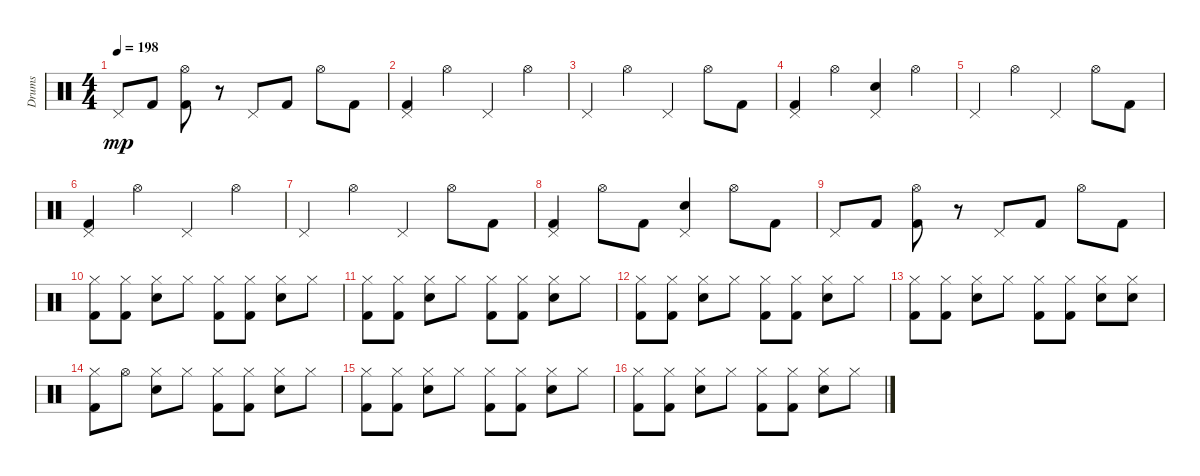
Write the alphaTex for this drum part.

\track ("Drums" "Drums") {instrument percussion}
\staff {score}
\articulation defaults
\ts (4 4)
\tempo 198
\clef neutral
\ks c "Pedal Hi-Hat (hit)".8{dy mp} "Kick (hit) 2".8
("Hi-Hat (open)" "Kick (hit) 2").8 r.8 "Pedal Hi-Hat (hit)".8 "Kick (hit) 2".8 "Hi-Hat (open)".8 "Kick (hit) 2".8 |
("Pedal Hi-Hat (hit)" "Kick (hit) 2").4 "Hi-Hat (open)".4 "Pedal Hi-Hat (hit)".4 "Hi-Hat (open)".4 |
"Pedal Hi-Hat (hit)".4 "Hi-Hat (open)".4 "Pedal Hi-Hat (hit)".4 "Hi-Hat (open)".8 "Kick (hit) 2".8 |
("Pedal Hi-Hat (hit)" "Kick (hit) 2").4 "Hi-Hat (open)".4 ("Pedal Hi-Hat (hit)" "Snare (hit) 2").4 "Hi-Hat (open)".4 |
"Pedal Hi-Hat (hit)".4 "Hi-Hat (open)".4 "Pedal Hi-Hat (hit)".4 "Hi-Hat (open)".8 "Kick (hit) 2".8 |
("Pedal Hi-Hat (hit)" "Kick (hit) 2").4 "Hi-Hat (open)".4 "Pedal Hi-Hat (hit)".4 "Hi-Hat (open)".4 |
"Pedal Hi-Hat (hit)".4 "Hi-Hat (open)".4 "Pedal Hi-Hat (hit)".4 "Hi-Hat (open)".8 "Kick (hit) 2".8 |
("Pedal Hi-Hat (hit)" "Kick (hit) 2").4 "Hi-Hat (open)".8 "Kick (hit) 2".8 ("Pedal Hi-Hat (hit)" "Snare (hit) 2").4 "Hi-Hat (open)".8 "Kick (hit) 2".8 |
"Pedal Hi-Hat (hit)".8 "Kick (hit) 2".8 ("Hi-Hat (open)" "Kick (hit) 2").8 r.8 "Pedal Hi-Hat (hit)".8 "Kick (hit) 2".8 "Hi-Hat (open)".8 "Kick (hit) 2".8 |
("Hi-Hat (closed)" "Kick (hit) 2").8 ("Hi-Hat (closed)" "Kick (hit) 2").8 ("Hi-Hat (closed)" "Snare (hit) 2").8 "Hi-Hat (closed)".8 ("Hi-Hat (closed)" "Kick (hit) 2").8 ("Hi-Hat (closed)" "Kick (hit) 2").8 ("Hi-Hat (closed)" "Snare (hit) 2").8 "Hi-Hat (closed)".8 |
("Hi-Hat (closed)" "Kick (hit) 2").8 ("Hi-Hat (closed)" "Kick (hit) 2").8 ("Hi-Hat (closed)" "Snare (hit) 2").8 "Hi-Hat (closed)".8 ("Hi-Hat (closed)" "Kick (hit) 2").8 ("Hi-Hat (closed)" "Kick (hit) 2").8 ("Hi-Hat (closed)" "Snare (hit) 2").8 "Hi-Hat (closed)".8 |
("Hi-Hat (closed)" "Kick (hit) 2").8 ("Hi-Hat (closed)" "Kick (hit) 2").8 ("Hi-Hat (closed)" "Snare (hit) 2").8 "Hi-Hat (closed)".8 ("Hi-Hat (closed)" "Kick (hit) 2").8 ("Hi-Hat (closed)" "Kick (hit) 2").8 ("Hi-Hat (closed)" "Snare (hit) 2").8 "Hi-Hat (closed)".8 |
("Hi-Hat (closed)" "Kick (hit) 2").8 ("Hi-Hat (closed)" "Kick (hit) 2").8 ("Hi-Hat (closed)" "Snare (hit) 2").8 "Hi-Hat (closed)".8 ("Hi-Hat (closed)" "Kick (hit) 2").8 ("Hi-Hat (closed)" "Kick (hit) 2").8 ("Hi-Hat (closed)" "Snare (hit) 2").8 ("Hi-Hat (closed)" "Snare (hit) 2").8 |
("Hi-Hat (closed)" "Kick (hit) 2").8 "Hi-Hat (open)".8 ("Hi-Hat (closed)" "Snare (hit) 2").8 "Hi-Hat (closed)".8 ("Hi-Hat (closed)" "Kick (hit) 2").8 ("Hi-Hat (closed)" "Kick (hit) 2").8 ("Hi-Hat (closed)" "Snare (hit) 2").8 "Hi-Hat (closed)".8 |
("Hi-Hat (closed)" "Kick (hit) 2").8 ("Hi-Hat (closed)" "Kick (hit) 2").8 ("Hi-Hat (closed)" "Snare (hit) 2").8 "Hi-Hat (closed)".8 ("Hi-Hat (closed)" "Kick (hit) 2").8 ("Hi-Hat (closed)" "Kick (hit) 2").8 ("Hi-Hat (closed)" "Snare (hit) 2").8 "Hi-Hat (closed)".8 |
("Hi-Hat (closed)" "Kick (hit) 2").8 ("Hi-Hat (closed)" "Kick (hit) 2").8 ("Hi-Hat (closed)" "Snare (hit) 2").8 "Hi-Hat (closed)".8 ("Hi-Hat (closed)" "Kick (hit) 2").8 ("Hi-Hat (closed)" "Kick (hit) 2").8 ("Hi-Hat (closed)" "Snare (hit) 2").8 "Hi-Hat (closed)".8
